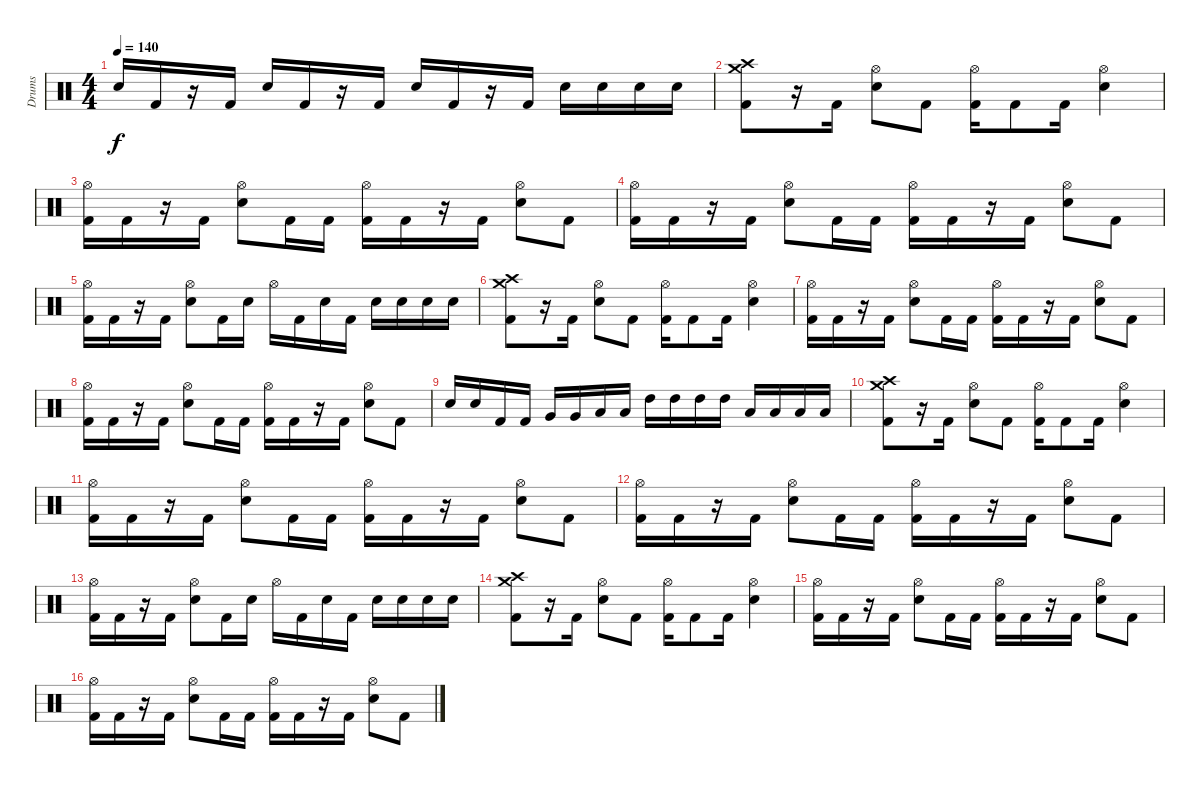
\track ("Drums" "Drums") {instrument percussion}
\staff {score}
\articulation defaults
\ts (4 4)
\tempo 140
\clef neutral
\ks c "Snare (hit) 2".16{dy f} "Kick (hit) 2".16
r.16 "Kick (hit) 2".16 "Snare (hit) 2".16 "Kick (hit) 2".16 r.16 "Kick (hit) 2".16 "Snare (hit) 2".16 "Kick (hit) 2".16 r.16 "Kick (hit) 2".16 "Snare (hit) 2".16 "Snare (hit) 2".16 "Snare (hit) 2".16 "Snare (hit) 2".16 |
("Crash medium (hit)" "Crash high (hit)" "Kick (hit) 2").8 r.16 "Kick (hit) 2".16 ("Hi-Hat (open)" "Snare (hit) 2").8 "Kick (hit) 2".8 ("Hi-Hat (open)" "Kick (hit) 2").16 "Kick (hit) 2".8 "Kick (hit) 2".16 ("Hi-Hat (open)" "Snare (hit) 2").4 |
("Hi-Hat (open)" "Kick (hit) 2").16 "Kick (hit) 2".16 r.16 "Kick (hit) 2".16 ("Hi-Hat (open)" "Snare (hit) 2").8 "Kick (hit) 2".16 "Kick (hit) 2".16 ("Hi-Hat (open)" "Kick (hit) 2").16 "Kick (hit) 2".16 r.16 "Kick (hit) 2".16 ("Hi-Hat (open)" "Snare (hit) 2").8 "Kick (hit) 2".8 |
("Hi-Hat (open)" "Kick (hit) 2").16 "Kick (hit) 2".16 r.16 "Kick (hit) 2".16 ("Hi-Hat (open)" "Snare (hit) 2").8 "Kick (hit) 2".16 "Kick (hit) 2".16 ("Hi-Hat (open)" "Kick (hit) 2").16 "Kick (hit) 2".16 r.16 "Kick (hit) 2".16 ("Hi-Hat (open)" "Snare (hit) 2").8 "Kick (hit) 2".8 |
("Hi-Hat (open)" "Kick (hit) 2").16 "Kick (hit) 2".16 r.16 "Kick (hit) 2".16 ("Hi-Hat (open)" "Snare (hit) 2").8 "Kick (hit) 2".16 "Snare (hit) 2".16 "Hi-Hat (open)".16 "Kick (hit) 2".16 "Snare (hit) 2".16 "Kick (hit) 2".16 "Snare (hit) 2".16 "Snare (hit) 2".16 "Snare (hit) 2".16 "Snare (hit) 2".16 |
("Crash medium (hit)" "Crash high (hit)" "Kick (hit) 2").8 r.16 "Kick (hit) 2".16 ("Hi-Hat (open)" "Snare (hit) 2").8 "Kick (hit) 2".8 ("Hi-Hat (open)" "Kick (hit) 2").16 "Kick (hit) 2".8 "Kick (hit) 2".16 ("Hi-Hat (open)" "Snare (hit) 2").4 |
("Hi-Hat (open)" "Kick (hit) 2").16 "Kick (hit) 2".16 r.16 "Kick (hit) 2".16 ("Hi-Hat (open)" "Snare (hit) 2").8 "Kick (hit) 2".16 "Kick (hit) 2".16 ("Hi-Hat (open)" "Kick (hit) 2").16 "Kick (hit) 2".16 r.16 "Kick (hit) 2".16 ("Hi-Hat (open)" "Snare (hit) 2").8 "Kick (hit) 2".8 |
("Hi-Hat (open)" "Kick (hit) 2").16 "Kick (hit) 2".16 r.16 "Kick (hit) 2".16 ("Hi-Hat (open)" "Snare (hit) 2").8 "Kick (hit) 2".16 "Kick (hit) 2".16 ("Hi-Hat (open)" "Kick (hit) 2").16 "Kick (hit) 2".16 r.16 "Kick (hit) 2".16 ("Hi-Hat (open)" "Snare (hit) 2").8 "Kick (hit) 2".8 |
"Snare (hit) 2".16 "Snare (hit) 2".16 "Kick (hit) 2".16 "Kick (hit) 2".16 "Very Low Tom (hit)".16 "Very Low Tom (hit)".16 "Low Floor Tom (hit)".16 "Low Floor Tom (hit)".16 "High Tom (hit)".16 "High Tom (hit)".16 "High Tom (hit)".16 "High Tom (hit)".16 "Low Tom (hit)".16 "Low Tom (hit)".16 "Low Tom (hit)".16 "Low Tom (hit)".16 |
("Crash medium (hit)" "Crash high (hit)" "Kick (hit) 2").8 r.16 "Kick (hit) 2".16 ("Hi-Hat (open)" "Snare (hit) 2").8 "Kick (hit) 2".8 ("Hi-Hat (open)" "Kick (hit) 2").16 "Kick (hit) 2".8 "Kick (hit) 2".16 ("Hi-Hat (open)" "Snare (hit) 2").4 |
("Hi-Hat (open)" "Kick (hit) 2").16 "Kick (hit) 2".16 r.16 "Kick (hit) 2".16 ("Hi-Hat (open)" "Snare (hit) 2").8 "Kick (hit) 2".16 "Kick (hit) 2".16 ("Hi-Hat (open)" "Kick (hit) 2").16 "Kick (hit) 2".16 r.16 "Kick (hit) 2".16 ("Hi-Hat (open)" "Snare (hit) 2").8 "Kick (hit) 2".8 |
("Hi-Hat (open)" "Kick (hit) 2").16 "Kick (hit) 2".16 r.16 "Kick (hit) 2".16 ("Hi-Hat (open)" "Snare (hit) 2").8 "Kick (hit) 2".16 "Kick (hit) 2".16 ("Hi-Hat (open)" "Kick (hit) 2").16 "Kick (hit) 2".16 r.16 "Kick (hit) 2".16 ("Hi-Hat (open)" "Snare (hit) 2").8 "Kick (hit) 2".8 |
("Hi-Hat (open)" "Kick (hit) 2").16 "Kick (hit) 2".16 r.16 "Kick (hit) 2".16 ("Hi-Hat (open)" "Snare (hit) 2").8 "Kick (hit) 2".16 "Snare (hit) 2".16 "Hi-Hat (open)".16 "Kick (hit) 2".16 "Snare (hit) 2".16 "Kick (hit) 2".16 "Snare (hit) 2".16 "Snare (hit) 2".16 "Snare (hit) 2".16 "Snare (hit) 2".16 |
("Crash medium (hit)" "Crash high (hit)" "Kick (hit) 2").8 r.16 "Kick (hit) 2".16 ("Hi-Hat (open)" "Snare (hit) 2").8 "Kick (hit) 2".8 ("Hi-Hat (open)" "Kick (hit) 2").16 "Kick (hit) 2".8 "Kick (hit) 2".16 ("Hi-Hat (open)" "Snare (hit) 2").4 |
("Hi-Hat (open)" "Kick (hit) 2").16 "Kick (hit) 2".16 r.16 "Kick (hit) 2".16 ("Hi-Hat (open)" "Snare (hit) 2").8 "Kick (hit) 2".16 "Kick (hit) 2".16 ("Hi-Hat (open)" "Kick (hit) 2").16 "Kick (hit) 2".16 r.16 "Kick (hit) 2".16 ("Hi-Hat (open)" "Snare (hit) 2").8 "Kick (hit) 2".8 |
("Hi-Hat (open)" "Kick (hit) 2").16 "Kick (hit) 2".16 r.16 "Kick (hit) 2".16 ("Hi-Hat (open)" "Snare (hit) 2").8 "Kick (hit) 2".16 "Kick (hit) 2".16 ("Hi-Hat (open)" "Kick (hit) 2").16 "Kick (hit) 2".16 r.16 "Kick (hit) 2".16 ("Hi-Hat (open)" "Snare (hit) 2").8 "Kick (hit) 2".8
